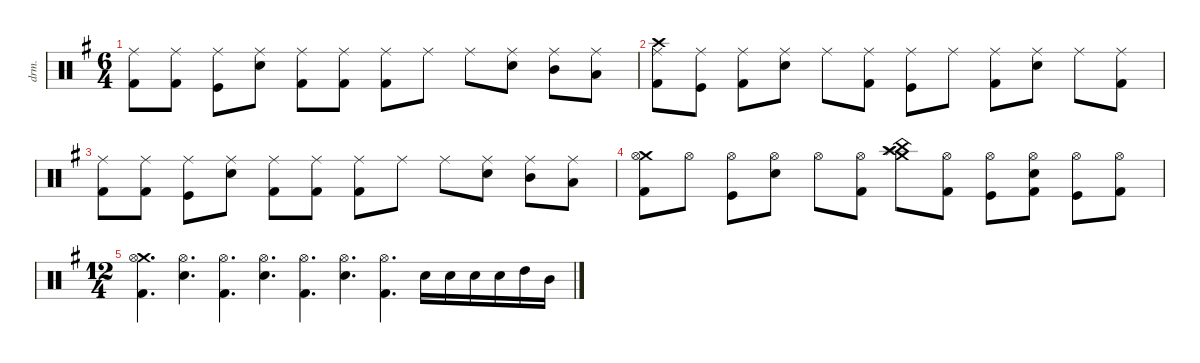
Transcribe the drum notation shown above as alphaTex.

\defaultSystemsLayout 4
\hideDynamics
\bracketExtendMode groupsimilarinstruments
\otherSystemsTrackNameOrientation horizontal
\track ("Drums" "drm.") {defaultSystemsLayout 4 instrument percussion}
\staff {score}
\articulation defaults
\ts (6 4)
\tempo (120 hide)
\clef neutral
\ks eminor
("Ride (middle)"{acc forcenatural} "Kick (hit) 2"{acc forcenatural}).8{dy f beam Down} ("Ride (middle)"{acc forcenatural} "Kick (hit) 2"{acc forcenatural}).8{beam Down} ("Ride (middle)"{acc forcenatural} "Kick (hit)"{acc forcenatural}).8{beam Down} ("Ride (middle)"{acc forcenatural} "Snare (hit) 2"{acc forcenatural}).8{beam Down} ("Ride (middle)"{acc forcenatural} "Kick (hit) 2"{acc forcenatural}).8{beam Down} ("Ride (middle)"{acc forcenatural} "Kick (hit) 2"{acc forcenatural}).8{beam Down} ("Ride (middle)"{acc forcenatural} "Kick (hit) 2"{acc forcenatural}).8{beam Down} "Ride (middle)"{acc forcenatural}.8{beam Down} "Ride (middle)"{acc forcenatural}.8{beam Down} ("Ride (middle)"{acc forcenatural} "Snare (hit) 2"{acc forcenatural}).8{beam Down} ("Ride (middle)"{acc forcenatural} "Mid Tom (hit)"{acc forcenatural}).8{beam Down} ("Ride (middle)"{acc forcenatural} "Low Tom (hit)"{acc forcenatural}).8{beam Down} |
("Crash high (hit)"{acc forcenatural} "Ride (middle)"{acc forcenatural} "Kick (hit) 2"{acc forcenatural}).8{beam Down} ("Ride (middle)"{acc forcenatural} "Kick (hit)"{acc forcenatural}).8{beam Down} ("Ride (middle)"{acc forcenatural} "Kick (hit) 2"{acc forcenatural}).8{beam Down} ("Ride (middle)"{acc forcenatural} "Snare (hit) 2"{acc forcenatural}).8{beam Down} "Ride (middle)"{acc forcenatural}.8{beam Down} ("Ride (middle)"{acc forcenatural} "Kick (hit) 2"{acc forcenatural}).8{beam Down} ("Ride (middle)"{acc forcenatural} "Kick (hit)"{acc forcenatural}).8{beam Down} "Ride (middle)"{acc forcenatural}.8{beam Down} ("Ride (middle)"{acc forcenatural} "Kick (hit) 2"{acc forcenatural}).8{beam Down} ("Ride (middle)"{acc forcenatural} "Snare (hit) 2"{acc forcenatural}).8{beam Down} "Ride (middle)"{acc forcenatural}.8{beam Down} ("Ride (middle)"{acc forcenatural} "Kick (hit) 2"{acc forcenatural}).8{beam Down} |
("Ride (middle)"{acc forcenatural} "Kick (hit) 2"{acc forcenatural}).8{beam Down} ("Ride (middle)"{acc forcenatural} "Kick (hit) 2"{acc forcenatural}).8{beam Down} ("Ride (middle)"{acc forcenatural} "Kick (hit)"{acc forcenatural}).8{beam Down} ("Ride (middle)"{acc forcenatural} "Snare (hit) 2"{acc forcenatural}).8{beam Down} ("Ride (middle)"{acc forcenatural} "Kick (hit) 2"{acc forcenatural}).8{beam Down} ("Ride (middle)"{acc forcenatural} "Kick (hit) 2"{acc forcenatural}).8{beam Down} ("Ride (middle)"{acc forcenatural} "Kick (hit) 2"{acc forcenatural}).8{beam Down} "Ride (middle)"{acc forcenatural}.8{beam Down} "Ride (middle)"{acc forcenatural}.8{beam Down} ("Ride (middle)"{acc forcenatural} "Snare (hit) 2"{acc forcenatural}).8{beam Down} ("Ride (middle)"{acc forcenatural} "Mid Tom (hit)"{acc forcenatural}).8{beam Down} ("Ride (middle)"{acc forcenatural} "Low Tom (hit)"{acc forcenatural}).8{beam Down} |
("Crash medium (hit)"{acc forcenatural} "Hi-Hat (open)"{acc forcenatural} "Kick (hit) 2"{acc forcenatural}).8{beam Down} "Hi-Hat (open)"{acc forcenatural}.8{beam Down} ("Hi-Hat (open)"{acc forcenatural} "Kick (hit)"{acc forcenatural}).8{beam Down} ("Hi-Hat (open)"{acc forcenatural} "Snare (hit) 2"{acc forcenatural}).8{beam Down} "Hi-Hat (open)"{acc forcenatural}.8{beam Down} ("Hi-Hat (open)"{acc forcenatural} "Kick (hit) 2"{acc forcenatural}).8{beam Down} ("Splash (hit)"{acc forcenatural} "China (hit)"{acc forcenatural} "Crash medium (hit)"{acc forcenatural} "Crash high (hit)"{acc forcenatural}).8{beam Down} ("Hi-Hat (open)"{acc forcenatural} "Kick (hit) 2"{acc forcenatural}).8{beam Down} ("Hi-Hat (open)"{acc forcenatural} "Kick (hit)"{acc forcenatural}).8{beam Down} ("Hi-Hat (open)"{acc forcenatural} "Snare (hit) 2"{acc forcenatural} "Kick (hit) 2"{acc forcenatural}).8{beam Down} ("Hi-Hat (open)"{acc forcenatural} "Kick (hit)"{acc forcenatural}).8{beam Down} ("Hi-Hat (open)"{acc forcenatural} "Kick (hit) 2"{acc forcenatural}).8{beam Down} |
\ts (12 4)
\beaming (8 24)
("Crash medium (hit)"{acc forcenatural} "Hi-Hat (open)"{acc forcenatural} "Kick (hit) 2"{acc forcenatural}).4{d beam Down} ("Hi-Hat (open)"{acc forcenatural} "Snare (hit) 2"{acc forcenatural}).4{d beam Down} ("Hi-Hat (open)"{acc forcenatural} "Kick (hit) 2"{acc forcenatural}).4{d beam Down} ("Hi-Hat (open)"{acc forcenatural} "Snare (hit) 2"{acc forcenatural}).4{d beam Down} ("Hi-Hat (open)"{acc forcenatural} "Kick (hit) 2"{acc forcenatural}).4{d beam Down} ("Hi-Hat (open)"{acc forcenatural} "Snare (hit) 2"{acc forcenatural}).4{d beam Down} ("Hi-Hat (open)"{acc forcenatural} "Kick (hit) 2"{acc forcenatural}).4{d beam Down} "Snare (hit) 2"{acc forcenatural}.16{beam Down} "Snare (hit) 2"{acc forcenatural}.16{beam Down} "Snare (hit) 2"{acc forcenatural}.16{beam Down} "Snare (hit) 2"{acc forcenatural}.16{beam Down} "High Tom (hit)"{acc forcenatural}.16{beam Down} "Mid Tom (hit)"{acc forcenatural}.16{beam Down}
